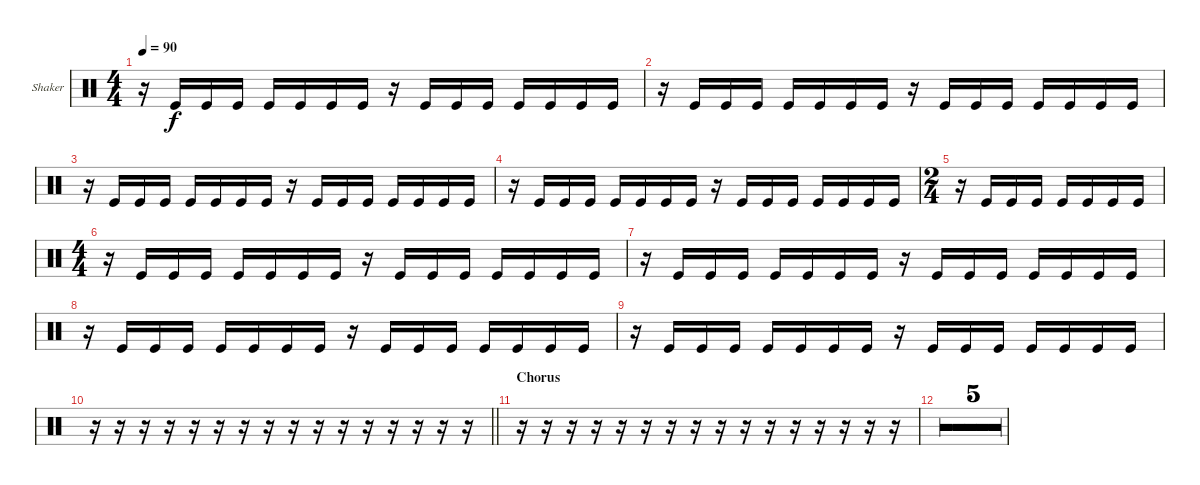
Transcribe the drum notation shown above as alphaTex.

\bracketExtendMode groupsimilarinstruments
\firstSystemTrackNameOrientation horizontal
\otherSystemsTrackNameOrientation horizontal
\track ("Shaker" "Shaker") {multiBarRest instrument percussion}
\staff {score}
\articulation defaults
\ts (4 4)
\beaming (8 2 2 2 2)
\tempo 90
\clef neutral
\ks c
r.16{dy f} "Kick (hit)".16 "Kick (hit)".16 "Kick (hit)".16 "Kick (hit)".16 "Kick (hit)".16 "Kick (hit)".16 "Kick (hit)".16 r.16 "Kick (hit)".16 "Kick (hit)".16 "Kick (hit)".16 "Kick (hit)".16 "Kick (hit)".16 "Kick (hit)".16 "Kick (hit)".16 |
r.16 "Kick (hit)".16 "Kick (hit)".16 "Kick (hit)".16 "Kick (hit)".16 "Kick (hit)".16 "Kick (hit)".16 "Kick (hit)".16 r.16 "Kick (hit)".16 "Kick (hit)".16 "Kick (hit)".16 "Kick (hit)".16 "Kick (hit)".16 "Kick (hit)".16 "Kick (hit)".16 |
r.16 "Kick (hit)".16 "Kick (hit)".16 "Kick (hit)".16 "Kick (hit)".16 "Kick (hit)".16 "Kick (hit)".16 "Kick (hit)".16 r.16 "Kick (hit)".16 "Kick (hit)".16 "Kick (hit)".16 "Kick (hit)".16 "Kick (hit)".16 "Kick (hit)".16 "Kick (hit)".16 |
r.16 "Kick (hit)".16 "Kick (hit)".16 "Kick (hit)".16 "Kick (hit)".16 "Kick (hit)".16 "Kick (hit)".16 "Kick (hit)".16 r.16 "Kick (hit)".16 "Kick (hit)".16 "Kick (hit)".16 "Kick (hit)".16 "Kick (hit)".16 "Kick (hit)".16 "Kick (hit)".16 |
\ts (2 4)
\beaming (8 2 2)
r.16 "Kick (hit)".16 "Kick (hit)".16 "Kick (hit)".16 "Kick (hit)".16 "Kick (hit)".16 "Kick (hit)".16 "Kick (hit)".16 |
\ts (4 4)
\beaming (8 2 2 2 2)
r.16 "Kick (hit)".16 "Kick (hit)".16 "Kick (hit)".16 "Kick (hit)".16 "Kick (hit)".16 "Kick (hit)".16 "Kick (hit)".16 r.16 "Kick (hit)".16 "Kick (hit)".16 "Kick (hit)".16 "Kick (hit)".16 "Kick (hit)".16 "Kick (hit)".16 "Kick (hit)".16 |
r.16 "Kick (hit)".16 "Kick (hit)".16 "Kick (hit)".16 "Kick (hit)".16 "Kick (hit)".16 "Kick (hit)".16 "Kick (hit)".16 r.16 "Kick (hit)".16 "Kick (hit)".16 "Kick (hit)".16 "Kick (hit)".16 "Kick (hit)".16 "Kick (hit)".16 "Kick (hit)".16 |
r.16 "Kick (hit)".16 "Kick (hit)".16 "Kick (hit)".16 "Kick (hit)".16 "Kick (hit)".16 "Kick (hit)".16 "Kick (hit)".16 r.16 "Kick (hit)".16 "Kick (hit)".16 "Kick (hit)".16 "Kick (hit)".16 "Kick (hit)".16 "Kick (hit)".16 "Kick (hit)".16 |
r.16 "Kick (hit)".16 "Kick (hit)".16 "Kick (hit)".16 "Kick (hit)".16 "Kick (hit)".16 "Kick (hit)".16 "Kick (hit)".16 r.16 "Kick (hit)".16 "Kick (hit)".16 "Kick (hit)".16 "Kick (hit)".16 "Kick (hit)".16 "Kick (hit)".16 "Kick (hit)".16 |
\barLineRight lightlight
r.16 r.16 r.16 r.16 r.16 r.16 r.16 r.16 r.16 r.16 r.16 r.16 r.16 r.16 r.16 r.16 |
\section ("" "Chorus")
r.16 r.16 r.16 r.16 r.16 r.16 r.16 r.16 r.16 r.16 r.16 r.16 r.16 r.16 r.16 r.16 |
r.16 r.16 r.16 r.16 r.16 r.16 r.16 r.16 r.16 r.16 r.16 r.16 r.16 r.16 r.16 r.16 |
r.16 r.16 r.16 r.16 r.16 r.16 r.16 r.16 r.16 r.16 r.16 r.16 r.16 r.16 r.16 r.16 |
r.16 r.16 r.16 r.16 r.16 r.16 r.16 r.16 r.16 r.16 r.16 r.16 r.16 r.16 r.16 r.16 |
r.16 r.16 r.16 r.16 r.16 r.16 r.16 r.16 r.16 r.16 r.16 r.16 r.16 r.16 r.16 r.16 |
r.16 r.16 r.16 r.16 r.16 r.16 r.16 r.16 r.16 r.16 r.16 r.16 r.16 r.16 r.16 r.16
